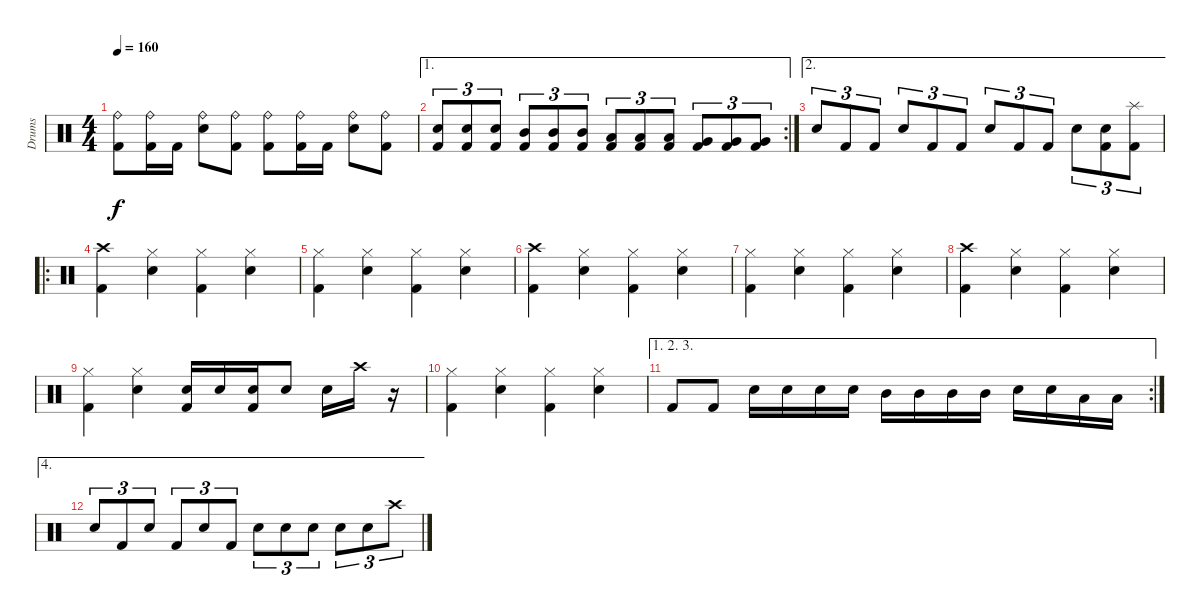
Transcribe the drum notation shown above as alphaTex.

\track ("Drums" "Drums") {instrument percussion}
\staff {score}
\articulation defaults
\ts (4 4)
\tempo 160
\clef neutral
\ks c
("Ride (bell)" "Kick (hit) 2").8{dy f} ("Ride (bell)" "Kick (hit) 2").16 "Kick (hit) 2".16 ("Ride (bell)" "Snare (hit) 2").8 ("Ride (bell)" "Kick (hit) 2").8 ("Ride (bell)" "Kick (hit) 2").8 ("Ride (bell)" "Kick (hit) 2").16 "Kick (hit) 2".16 ("Ride (bell)" "Snare (hit) 2").8 ("Ride (bell)" "Kick (hit) 2").8 |
\ae 1
\rc 2
("Snare (hit) 2" "Kick (hit) 2").8{tu (3 2)} ("Snare (hit) 2" "Kick (hit) 2").8{tu (3 2)} ("Snare (hit) 2" "Kick (hit) 2").8{tu (3 2)} ("Mid Tom (hit)" "Kick (hit) 2").8{tu (3 2)} ("Mid Tom (hit)" "Kick (hit) 2").8{tu (3 2)} ("Mid Tom (hit)" "Kick (hit) 2").8{tu (3 2)} ("Low Tom (hit)" "Kick (hit) 2").8{tu (3 2)} ("Low Tom (hit)" "Kick (hit) 2").8{tu (3 2)} ("Low Tom (hit)" "Kick (hit) 2").8{tu (3 2)} ("Very Low Tom (hit)" "Kick (hit) 2").8{tu (3 2)} ("Very Low Tom (hit)" "Kick (hit) 2").8{tu (3 2)} ("Very Low Tom (hit)" "Kick (hit) 2").8{tu (3 2)} |
\ae 2 "Snare (hit) 2".8{tu (3 2)} "Kick (hit) 2".8{tu (3 2)} "Kick (hit) 2".8{tu (3 2)} "Snare (hit) 2".8{tu (3 2)} "Kick (hit) 2".8{tu (3 2)} "Kick (hit) 2".8{tu (3 2)} "Snare (hit) 2".8{tu (3 2)} "Kick (hit) 2".8{tu (3 2)} "Kick (hit) 2".8{tu (3 2)} "Snare (hit) 2".8{tu (3 2)}
("Snare (hit) 2" "Kick (hit) 2").8{tu (3 2)} ("Splash (hit)" "Kick (hit) 2").8{tu (3 2)} |
\ro
("Crash high (hit)" "Kick (hit) 2").4 ("Hi-Hat (closed)" "Snare (hit) 2").4 ("Hi-Hat (closed)" "Kick (hit) 2").4 ("Hi-Hat (closed)" "Snare (hit) 2").4 |
("Hi-Hat (closed)" "Kick (hit) 2").4 ("Hi-Hat (closed)" "Snare (hit) 2").4 ("Hi-Hat (closed)" "Kick (hit) 2").4 ("Hi-Hat (closed)" "Snare (hit) 2").4 |
("Crash high (hit)" "Kick (hit) 2").4 ("Hi-Hat (closed)" "Snare (hit) 2").4 ("Hi-Hat (closed)" "Kick (hit) 2").4 ("Hi-Hat (closed)" "Snare (hit) 2").4 |
("Hi-Hat (closed)" "Kick (hit) 2").4 ("Hi-Hat (closed)" "Snare (hit) 2").4 ("Hi-Hat (closed)" "Kick (hit) 2").4 ("Hi-Hat (closed)" "Snare (hit) 2").4 |
("Crash high (hit)" "Kick (hit) 2").4 ("Hi-Hat (closed)" "Snare (hit) 2").4 ("Hi-Hat (closed)" "Kick (hit) 2").4 ("Hi-Hat (closed)" "Snare (hit) 2").4 |
("Hi-Hat (closed)" "Kick (hit) 2").4 ("Hi-Hat (closed)" "Snare (hit) 2").4 ("Snare (hit) 2" "Kick (hit) 2").16 "Snare (hit) 2".16 ("Snare (hit) 2" "Kick (hit) 2").16 "Snare (hit) 2".8 "Snare (hit) 2".16 "Crash high (hit)".16 r.16 |
("Hi-Hat (closed)" "Kick (hit) 2").4 ("Hi-Hat (closed)" "Snare (hit) 2").4 ("Hi-Hat (closed)" "Kick (hit) 2").4 ("Hi-Hat (closed)" "Snare (hit) 2").4 |
\ae (1 2 3)
\rc 2 "Kick (hit) 2".8 "Kick (hit) 2".8 "Snare (hit) 2".16 "Snare (hit) 2".16 "Snare (hit) 2".16 "Snare (hit) 2".16 "Mid Tom (hit)".16 "Mid Tom (hit)".16 "Mid Tom (hit)".16 "Mid Tom (hit)".16 "Snare (hit) 2".16 "Snare (hit) 2".16 "Low Tom (hit)".16 "Low Tom (hit)".16
|
\ae 4 "Snare (hit) 2".8{tu (3 2)} "Kick (hit) 2".8{tu (3 2)} "Snare (hit) 2".8{tu (3 2)} "Kick (hit) 2".8{tu (3 2)} "Snare (hit) 2".8{tu (3 2)} "Kick (hit) 2".8{tu (3 2)} "Snare (hit) 2".8{tu (3 2)} "Snare (hit) 2".8{tu (3 2)} "Snare (hit) 2".8{tu (3 2)} "Snare (hit) 2".8{tu (3 2)} "Snare (hit) 2".8{tu (3 2)} "Crash high (hit)".8{tu (3 2)}
